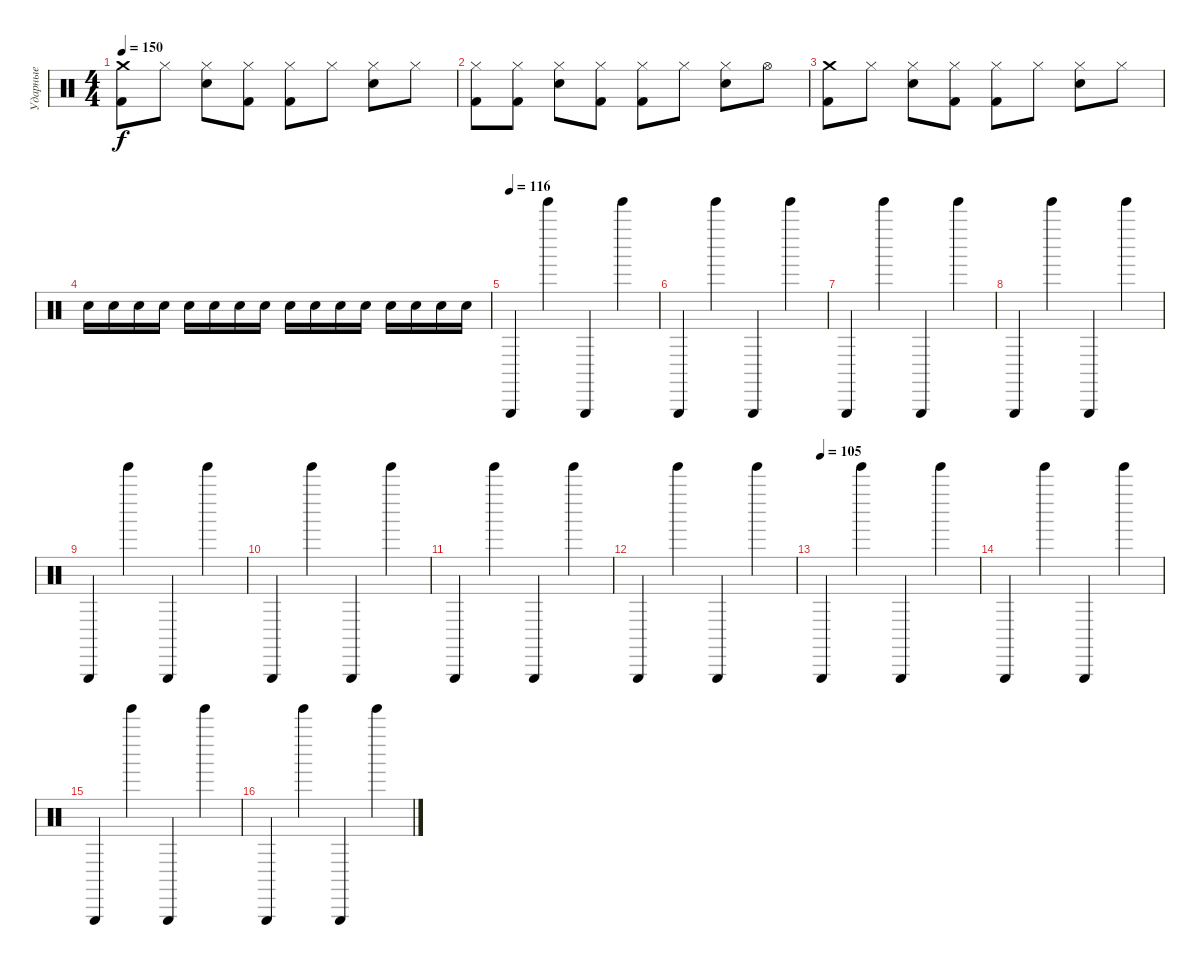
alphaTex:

\track ("Ударные" "Ударные") {instrument percussion}
\staff {score}
\articulation defaults
\ts (4 4)
\tempo 150
\clef neutral
\ks c
("Crash medium (hit)" "Kick (hit) 2").8{dy f} "Hi-Hat (closed)".8 ("Hi-Hat (closed)" "Snare (hit) 2").8 ("Hi-Hat (closed)" "Kick (hit) 2").8 ("Hi-Hat (closed)" "Kick (hit) 2").8 "Hi-Hat (closed)".8 ("Hi-Hat (closed)" "Snare (hit) 2").8 "Hi-Hat (closed)".8 |
("Hi-Hat (closed)" "Kick (hit) 2").8 ("Hi-Hat (closed)" "Kick (hit) 2").8 ("Hi-Hat (closed)" "Snare (hit) 2").8 ("Hi-Hat (closed)" "Kick (hit) 2").8 ("Hi-Hat (closed)" "Kick (hit) 2").8 "Hi-Hat (closed)".8 ("Hi-Hat (closed)" "Snare (hit) 2").8 "Hi-Hat (open)".8 |
("Crash medium (hit)" "Kick (hit) 2").8 "Hi-Hat (closed)".8 ("Hi-Hat (closed)" "Snare (hit) 2").8 ("Hi-Hat (closed)" "Kick (hit) 2").8 ("Hi-Hat (closed)" "Kick (hit) 2").8 "Hi-Hat (closed)".8 ("Hi-Hat (closed)" "Snare (hit) 2").8 "Hi-Hat (closed)".8 |
"Snare (hit) 2".16 "Snare (hit) 2".16 "Snare (hit) 2".16 "Snare (hit) 2".16 "Snare (hit) 2".16 "Snare (hit) 2".16 "Snare (hit) 2".16 "Snare (hit) 2".16 "Snare (hit) 2".16 "Snare (hit) 2".16 "Snare (hit) 2".16 "Snare (hit) 2".16 "Snare (hit) 2".16 "Snare (hit) 2".16 "Snare (hit) 2".16 "Snare (hit) 2".16 |
\tempo (116)
"Triangle (hit)".4 "Tinkle Bell (hit)".4 "Triangle (hit)".4 "Tinkle Bell (hit)".4 |
"Triangle (hit)".4 "Tinkle Bell (hit)".4 "Triangle (hit)".4 "Tinkle Bell (hit)".4 |
"Triangle (hit)".4 "Tinkle Bell (hit)".4 "Triangle (hit)".4 "Tinkle Bell (hit)".4 |
"Triangle (hit)".4 "Tinkle Bell (hit)".4 "Triangle (hit)".4 "Tinkle Bell (hit)".4 |
"Triangle (hit)".4 "Tinkle Bell (hit)".4 "Triangle (hit)".4 "Tinkle Bell (hit)".4 |
"Triangle (hit)".4 "Tinkle Bell (hit)".4 "Triangle (hit)".4 "Tinkle Bell (hit)".4 |
"Triangle (hit)".4 "Tinkle Bell (hit)".4 "Triangle (hit)".4 "Tinkle Bell (hit)".4 |
"Triangle (hit)".4 "Tinkle Bell (hit)".4 "Triangle (hit)".4 "Tinkle Bell (hit)".4 |
\tempo (105)
"Triangle (hit)".4 "Tinkle Bell (hit)".4 "Triangle (hit)".4 "Tinkle Bell (hit)".4 |
"Triangle (hit)".4 "Tinkle Bell (hit)".4 "Triangle (hit)".4 "Tinkle Bell (hit)".4 |
"Triangle (hit)".4 "Tinkle Bell (hit)".4 "Triangle (hit)".4 "Tinkle Bell (hit)".4 |
"Triangle (hit)".4 "Tinkle Bell (hit)".4 "Triangle (hit)".4 "Tinkle Bell (hit)".4
